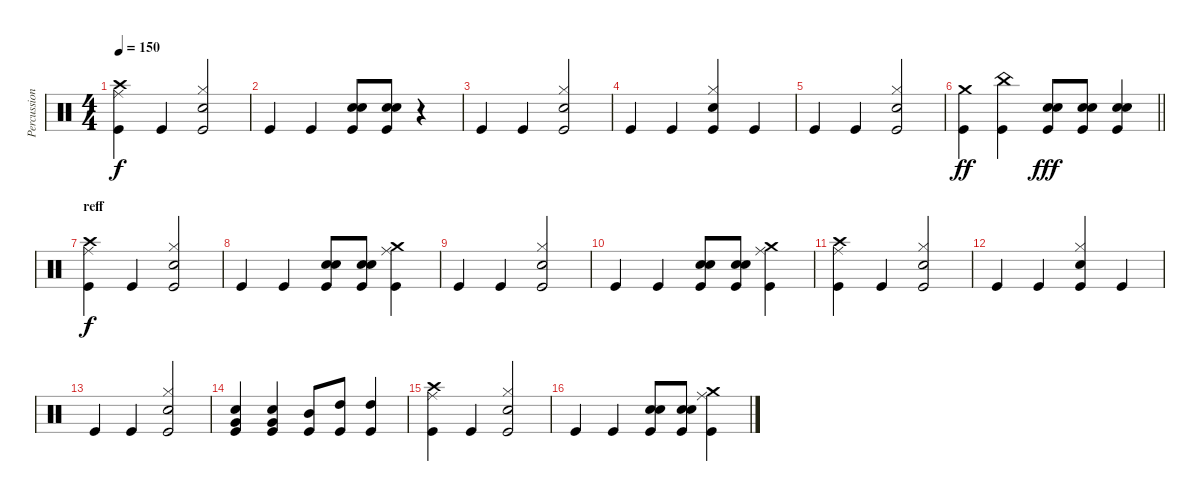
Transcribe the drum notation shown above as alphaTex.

\track ("Percussion" "Percussion") {instrument percussion}
\staff {score}
\articulation defaults
\ts (4 4)
\tempo 150
\clef neutral
\ks c
("Crash high (hit)" "Ride (middle)" "Kick (hit)").4{dy f} "Kick (hit)".4 ("Hi-Hat (closed)" "Electric Snare (hit)" "Kick (hit)").2 |
"Kick (hit)".4 "Kick (hit)".4 ("Electric Snare (hit)" "Electric Snare (hit)" "Kick (hit)").8 ("Electric Snare (hit)" "Electric Snare (hit)" "Kick (hit)").8 r.4 |
"Kick (hit)".4 "Kick (hit)".4 ("Hi-Hat (closed)" "Electric Snare (hit)" "Kick (hit)").2 |
"Kick (hit)".4 "Kick (hit)".4 ("Hi-Hat (closed)" "Electric Snare (hit)" "Kick (hit)").4 "Kick (hit)".4 |
"Kick (hit)".4 "Kick (hit)".4 ("Hi-Hat (closed)" "Electric Snare (hit)" "Kick (hit)").2 |
\barLineRight lightlight
("Crash medium (hit)" "Kick (hit)").4{dy ff} ("China (hit)" "Kick (hit)").4 ("Electric Snare (hit)" "Electric Snare (hit)" "Kick (hit)").8{dy fff} ("Electric Snare (hit)" "Electric Snare (hit)" "Kick (hit)").8 ("Electric Snare (hit)" "Electric Snare (hit)" "Kick (hit)").4 |
\section ("" "reff")
("Crash high (hit)" "Ride (middle)" "Kick (hit)").4{dy f} "Kick (hit)".4 ("Hi-Hat (closed)" "Electric Snare (hit)" "Kick (hit)").2 |
"Kick (hit)".4 "Kick (hit)".4 ("Electric Snare (hit)" "Electric Snare (hit)" "Kick (hit)").8 ("Electric Snare (hit)" "Electric Snare (hit)" "Kick (hit)").8 ("Crash medium (hit)" "Ride (middle)" "Kick (hit)").4 |
"Kick (hit)".4 "Kick (hit)".4 ("Hi-Hat (closed)" "Electric Snare (hit)" "Kick (hit)").2 |
"Kick (hit)".4 "Kick (hit)".4 ("Electric Snare (hit)" "Electric Snare (hit)" "Kick (hit)").8 ("Electric Snare (hit)" "Electric Snare (hit)" "Kick (hit)").8 ("Crash medium (hit)" "Ride (middle)" "Kick (hit)").4 |
("Crash high (hit)" "Ride (middle)" "Kick (hit)").4 "Kick (hit)".4 ("Hi-Hat (closed)" "Electric Snare (hit)" "Kick (hit)").2 |
"Kick (hit)".4 "Kick (hit)".4 ("Hi-Hat (closed)" "Electric Snare (hit)" "Kick (hit)").4 "Kick (hit)".4 |
"Kick (hit)".4 "Kick (hit)".4 ("Hi-Hat (closed)" "Electric Snare (hit)" "Kick (hit)").2 |
("Electric Snare (hit)" "Very Low Tom (hit)" "Kick (hit)").4 ("Electric Snare (hit)" "Very Low Tom (hit)" "Kick (hit)").4 ("Mid Tom (hit)" "Kick (hit)").8 ("High Tom (hit)" "Kick (hit)").8 ("High Tom (hit)" "Kick (hit)").4 |
("Crash high (hit)" "Ride (middle)" "Kick (hit)").4 "Kick (hit)".4 ("Hi-Hat (closed)" "Electric Snare (hit)" "Kick (hit)").2 |
"Kick (hit)".4 "Kick (hit)".4 ("Electric Snare (hit)" "Electric Snare (hit)" "Kick (hit)").8 ("Electric Snare (hit)" "Electric Snare (hit)" "Kick (hit)").8 ("Crash medium (hit)" "Ride (middle)" "Kick (hit)").4
